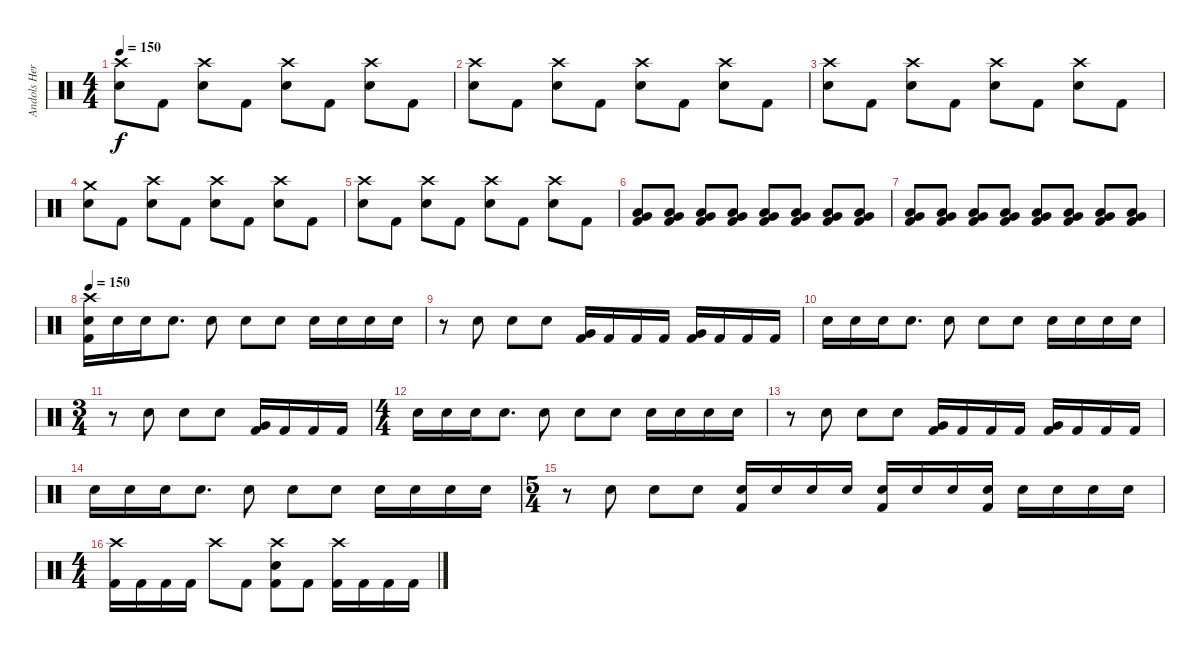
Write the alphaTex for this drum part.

\track ("Andols Herrick" "Andols Her") {instrument percussion}
\staff {score}
\articulation defaults
\ts (4 4)
\tempo 150
\clef neutral
\ks c
("Crash high (hit)" "Electric Snare (hit)").8{dy f} "Kick (hit) 2".8 ("Crash high (hit)" "Electric Snare (hit)").8 "Kick (hit) 2".8 ("Crash high (hit)" "Electric Snare (hit)").8 "Kick (hit) 2".8 ("Crash high (hit)" "Electric Snare (hit)").8 "Kick (hit) 2".8 |
("Crash high (hit)" "Electric Snare (hit)").8 "Kick (hit) 2".8 ("Crash high (hit)" "Electric Snare (hit)").8 "Kick (hit) 2".8 ("Crash high (hit)" "Electric Snare (hit)").8 "Kick (hit) 2".8 ("Crash high (hit)" "Electric Snare (hit)").8 "Kick (hit) 2".8 |
("Crash high (hit)" "Electric Snare (hit)").8 "Kick (hit) 2".8 ("Crash high (hit)" "Electric Snare (hit)").8 "Kick (hit) 2".8 ("Crash high (hit)" "Electric Snare (hit)").8 "Kick (hit) 2".8 ("Crash high (hit)" "Electric Snare (hit)").8 "Kick (hit) 2".8 |
("Crash medium (hit)" "Electric Snare (hit)").8 "Kick (hit) 2".8 ("Crash high (hit)" "Electric Snare (hit)").8 "Kick (hit) 2".8 ("Crash high (hit)" "Electric Snare (hit)").8 "Kick (hit) 2".8 ("Crash high (hit)" "Electric Snare (hit)").8 "Kick (hit) 2".8 |
("Crash high (hit)" "Electric Snare (hit)").8 "Kick (hit) 2".8 ("Crash high (hit)" "Electric Snare (hit)").8 "Kick (hit) 2".8 ("Crash high (hit)" "Electric Snare (hit)").8 "Kick (hit) 2".8 ("Crash high (hit)" "Electric Snare (hit)").8 "Kick (hit) 2".8 |
("Very Low Tom (hit)" "Low Floor Tom (hit)" "Kick (hit) 2").8{volume 2} ("Very Low Tom (hit)" "Low Floor Tom (hit)" "Kick (hit) 2").8{volume 12} ("Very Low Tom (hit)" "Low Floor Tom (hit)" "Kick (hit) 2").8 ("Very Low Tom (hit)" "Low Floor Tom (hit)" "Kick (hit) 2").8 ("Very Low Tom (hit)" "Low Floor Tom (hit)" "Kick (hit) 2").8 ("Very Low Tom (hit)" "Low Floor Tom (hit)" "Kick (hit) 2").8 ("Very Low Tom (hit)" "Low Floor Tom (hit)" "Kick (hit) 2").8 ("Very Low Tom (hit)" "Low Floor Tom (hit)" "Kick (hit) 2").8 |
("Very Low Tom (hit)" "Low Floor Tom (hit)" "Kick (hit) 2").8 ("Very Low Tom (hit)" "Low Floor Tom (hit)" "Kick (hit) 2").8 ("Very Low Tom (hit)" "Low Floor Tom (hit)" "Kick (hit) 2").8 ("Very Low Tom (hit)" "Low Floor Tom (hit)" "Kick (hit) 2").8 ("Very Low Tom (hit)" "Low Floor Tom (hit)" "Kick (hit) 2").8 ("Very Low Tom (hit)" "Low Floor Tom (hit)" "Kick (hit) 2").8 ("Very Low Tom (hit)" "Low Floor Tom (hit)" "Kick (hit) 2").8 ("Very Low Tom (hit)" "Low Floor Tom (hit)" "Kick (hit) 2").8 |
\tempo 150
("Crash high (hit)" "Electric Snare (hit)" "Kick (hit) 2").16 "Electric Snare (hit)".16 "Electric Snare (hit)".16 "Electric Snare (hit)".8{d} "Electric Snare (hit)".8 "Electric Snare (hit)".8 "Electric Snare (hit)".8 "Electric Snare (hit)".16 "Electric Snare (hit)".16 "Electric Snare (hit)".16 "Electric Snare (hit)".16 |
r.8 "Electric Snare (hit)".8 "Electric Snare (hit)".8 "Electric Snare (hit)".8 ("Very Low Tom (hit)" "Kick (hit) 2").16 "Kick (hit) 2".16 "Kick (hit) 2".16 "Kick (hit) 2".16 ("Very Low Tom (hit)" "Kick (hit) 2").16 "Kick (hit) 2".16 "Kick (hit) 2".16 "Kick (hit) 2".16 |
"Electric Snare (hit)".16 "Electric Snare (hit)".16 "Electric Snare (hit)".16 "Electric Snare (hit)".8{d} "Electric Snare (hit)".8 "Electric Snare (hit)".8 "Electric Snare (hit)".8 "Electric Snare (hit)".16 "Electric Snare (hit)".16 "Electric Snare (hit)".16 "Electric Snare (hit)".16 |
\ts (3 4)
r.8 "Electric Snare (hit)".8 "Electric Snare (hit)".8 "Electric Snare (hit)".8 ("Very Low Tom (hit)" "Kick (hit) 2").16 "Kick (hit) 2".16 "Kick (hit) 2".16 "Kick (hit) 2".16 |
\ts (4 4)
"Electric Snare (hit)".16 "Electric Snare (hit)".16 "Electric Snare (hit)".16 "Electric Snare (hit)".8{d} "Electric Snare (hit)".8 "Electric Snare (hit)".8 "Electric Snare (hit)".8 "Electric Snare (hit)".16 "Electric Snare (hit)".16 "Electric Snare (hit)".16 "Electric Snare (hit)".16 |
r.8 "Electric Snare (hit)".8 "Electric Snare (hit)".8 "Electric Snare (hit)".8 ("Very Low Tom (hit)" "Kick (hit) 2").16 "Kick (hit) 2".16 "Kick (hit) 2".16 "Kick (hit) 2".16 ("Very Low Tom (hit)" "Kick (hit) 2").16 "Kick (hit) 2".16 "Kick (hit) 2".16 "Kick (hit) 2".16 |
"Electric Snare (hit)".16 "Electric Snare (hit)".16 "Electric Snare (hit)".16 "Electric Snare (hit)".8{d} "Electric Snare (hit)".8 "Electric Snare (hit)".8 "Electric Snare (hit)".8 "Electric Snare (hit)".16 "Electric Snare (hit)".16 "Electric Snare (hit)".16 "Electric Snare (hit)".16 |
\ts (5 4)
r.8 "Electric Snare (hit)".8 "Electric Snare (hit)".8 "Electric Snare (hit)".8 ("Electric Snare (hit)" "Kick (hit) 2").16 "Electric Snare (hit)".16 "Electric Snare (hit)".16 "Electric Snare (hit)".16 ("Electric Snare (hit)" "Kick (hit) 2").16 "Electric Snare (hit)".16 "Electric Snare (hit)".16 ("Electric Snare (hit)" "Kick (hit) 2").16 "Electric Snare (hit)".16 "Electric Snare (hit)".16 "Electric Snare (hit)".16 "Electric Snare (hit)".16 |
\ts (4 4)
("Crash high (hit)" "Kick (hit) 2").16 "Kick (hit) 2".16 "Kick (hit) 2".16 "Kick (hit) 2".16 "Crash high (hit)".8 "Kick (hit) 2".8 ("Crash high (hit)" "Electric Snare (hit)" "Kick (hit) 2").8 "Kick (hit) 2".8 ("Crash high (hit)" "Kick (hit) 2").16 "Kick (hit) 2".16 "Kick (hit) 2".16 "Kick (hit) 2".16
